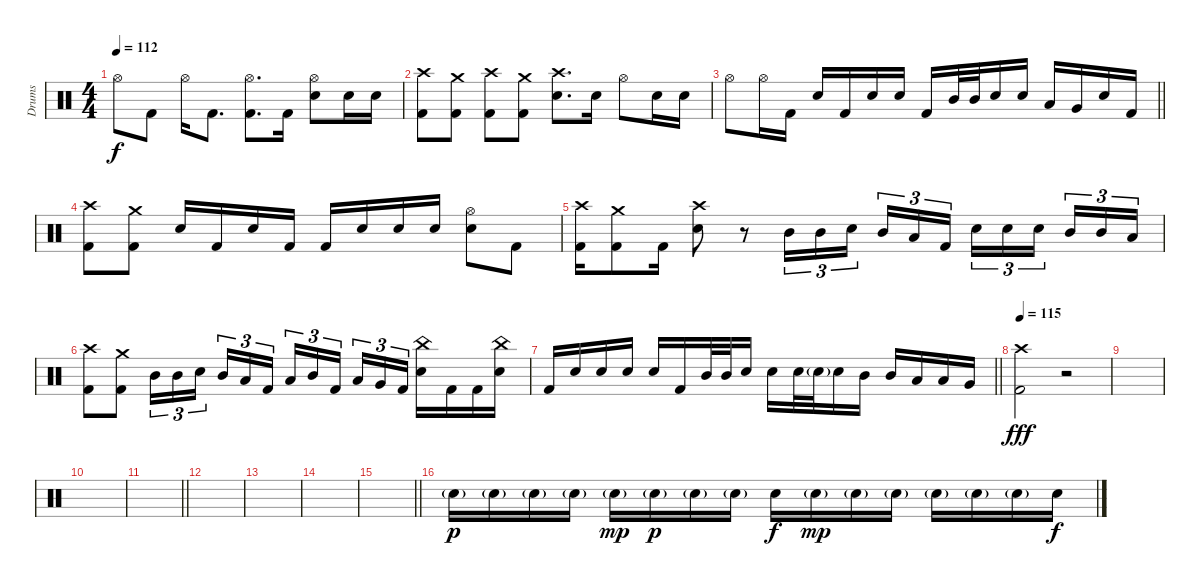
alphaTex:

\track ("Drums" "Drums") {instrument percussion}
\staff {score}
\articulation defaults
\ts (4 4)
\tempo 112
\clef neutral
\ks c "Hi-Hat (open)".8{dy f} "Kick (hit) 2".8 "Hi-Hat (open)".16 "Kick (hit) 2".8{d}
("Hi-Hat (open)" "Kick (hit) 2").8{d} "Kick (hit) 2".16 ("Hi-Hat (open)" "Electric Snare (hit)").8 "Electric Snare (hit)".16 "Electric Snare (hit)".16 |
("Crash high (hit)" "Kick (hit) 2").8 ("Crash medium (hit)" "Kick (hit) 2").8 ("Crash high (hit)" "Kick (hit) 2").8 ("Crash medium (hit)" "Kick (hit) 2").8 ("Crash high (hit)" "Electric Snare (hit)").8{d} "Electric Snare (hit)".16 "Hi-Hat (open)".8 "Electric Snare (hit)".16 "Electric Snare (hit)".16 |
\barLineRight lightlight "Hi-Hat (open)".8 "Hi-Hat (open)".16 "Kick (hit) 2".16 "Electric Snare (hit)".16 "Kick (hit) 2".16 "Electric Snare (hit)".16 "Electric Snare (hit)".16 "Kick (hit) 2".16 "Mid Tom (hit)".32 "Mid Tom (hit)".32 "Electric Snare (hit)".16 "Electric Snare (hit)".16 "Low Tom (hit)".16 "Very Low Tom (hit)".16 "Electric Snare (hit)".16 "Kick (hit) 2".16
|
("Crash high (hit)" "Kick (hit) 2").8 ("Crash medium (hit)" "Kick (hit) 2").8 "Electric Snare (hit)".16 "Kick (hit) 2".16 "Electric Snare (hit)".16 "Kick (hit) 2".16 "Kick (hit) 2".16 "Electric Snare (hit)".16 "Electric Snare (hit)".16 "Electric Snare (hit)".16 ("Hi-Hat (open)" "Electric Snare (hit)").8 "Kick (hit) 2".8 |
("Crash high (hit)" "Kick (hit) 2").16 ("Crash medium (hit)" "Kick (hit) 2").8 "Kick (hit) 2".16 ("Crash high (hit)" "Electric Snare (hit)").8 r.8 "Mid Tom (hit)".16{tu (3 2)} "Mid Tom (hit)".16{tu (3 2)} "Electric Snare (hit)".16{tu (3 2) beam splitsecondary} "Mid Tom (hit)".16{tu (3 2)} "Low Tom (hit)".16{tu (3 2)} "Kick (hit) 2".16{tu (3 2)} "Electric Snare (hit)".16{tu (3 2)} "Electric Snare (hit)".16{tu (3 2)} "Electric Snare (hit)".16{tu (3 2) beam splitsecondary} "Mid Tom (hit)".16{tu (3 2)} "Mid Tom (hit)".16{tu (3 2)} "Low Tom (hit)".16{tu (3 2)} |
("Crash high (hit)" "Kick (hit) 2").8 ("Crash medium (hit)" "Kick (hit) 2").8 "Mid Tom (hit)".16{tu (3 2)} "Mid Tom (hit)".16{tu (3 2)} "Electric Snare (hit)".16{tu (3 2) beam splitsecondary} "Mid Tom (hit)".16{tu (3 2)} "Low Tom (hit)".16{tu (3 2)} "Kick (hit) 2".16{tu (3 2)} "Low Tom (hit)".16{tu (3 2)} "Mid Tom (hit)".16{tu (3 2)} "Kick (hit) 2".16{tu (3 2) beam splitsecondary} "Low Tom (hit)".16{tu (3 2)} "Very Low Tom (hit)".16{tu (3 2)} "Kick (hit) 2".16{tu (3 2)} ("China (hit)" "Electric Snare (hit)").16 "Kick (hit) 2".16 "Kick (hit) 2".16 ("China (hit)" "Electric Snare (hit)").16 |
\barLineRight lightlight "Kick (hit) 2".16 "Electric Snare (hit)".16 "Electric Snare (hit)".16 "Electric Snare (hit)".16 "Electric Snare (hit)".16 "Kick (hit) 2".16 "Mid Tom (hit)".32 "Mid Tom (hit)".32 "Electric Snare (hit)".16 "Electric Snare (hit)".16 "Electric Snare (hit)".32 "Electric Snare (hit)"{g}.32 "Electric Snare (hit)".16 "Mid Tom (hit)".16 "Mid Tom (hit)".16 "Low Tom (hit)".16 "Low Tom (hit)".16 "Very Low Tom (hit)".16
|
\tempo 115
("Crash high (hit)" "Kick (hit) 2").2{dy fff} r.2 |
|
|
\barLineRight lightlight
|
|
|
|
\barLineRight lightlight
|
"Electric Snare (hit)"{g}.16{dy p} "Electric Snare (hit)"{g}.16 "Electric Snare (hit)"{g}.16 "Electric Snare (hit)"{g}.16 "Electric Snare (hit)"{g}.16{dy mp} "Electric Snare (hit)"{g}.16{dy p} "Electric Snare (hit)"{g}.16 "Electric Snare (hit)"{g}.16 "Electric Snare (hit)".16{dy f} "Electric Snare (hit)"{g}.16{dy mp} "Electric Snare (hit)"{g}.16 "Electric Snare (hit)"{g}.16 "Electric Snare (hit)"{g}.16 "Electric Snare (hit)"{g}.16 "Electric Snare (hit)"{g}.16 "Electric Snare (hit)".16{dy f}
